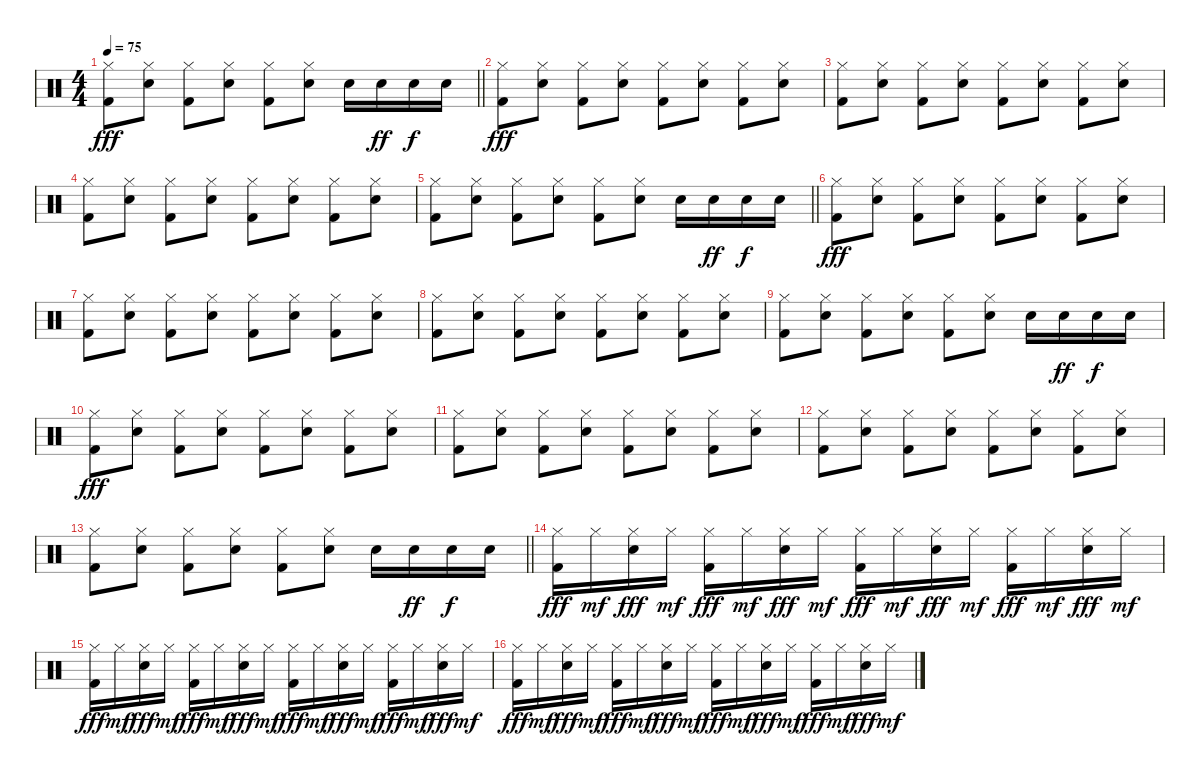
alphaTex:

\track "" {instrument percussion}
\staff {score}
\articulation defaults
\ts (4 4)
\tempo 75
\clef neutral
\barLineRight lightlight
\ks c
("Hi-Hat (closed)" "Kick (hit) 2").8{dy fff} ("Hi-Hat (closed)" "Snare (hit) 2").8 ("Hi-Hat (closed)" "Kick (hit) 2").8 ("Hi-Hat (closed)" "Snare (hit) 2").8 ("Hi-Hat (closed)" "Kick (hit) 2").8 ("Hi-Hat (closed)" "Snare (hit) 2").8 "Snare (hit) 2".16 "Snare (hit) 2".16{dy ff} "Snare (hit) 2".16{dy f} "Snare (hit) 2".16 |
("Hi-Hat (closed)" "Kick (hit) 2").8{dy fff} ("Hi-Hat (closed)" "Snare (hit) 2").8 ("Hi-Hat (closed)" "Kick (hit) 2").8 ("Hi-Hat (closed)" "Snare (hit) 2").8 ("Hi-Hat (closed)" "Kick (hit) 2").8 ("Hi-Hat (closed)" "Snare (hit) 2").8 ("Hi-Hat (closed)" "Kick (hit) 2").8 ("Hi-Hat (closed)" "Snare (hit) 2").8 |
("Hi-Hat (closed)" "Kick (hit) 2").8 ("Hi-Hat (closed)" "Snare (hit) 2").8 ("Hi-Hat (closed)" "Kick (hit) 2").8 ("Hi-Hat (closed)" "Snare (hit) 2").8 ("Hi-Hat (closed)" "Kick (hit) 2").8 ("Hi-Hat (closed)" "Snare (hit) 2").8 ("Hi-Hat (closed)" "Kick (hit) 2").8 ("Hi-Hat (closed)" "Snare (hit) 2").8 |
("Hi-Hat (closed)" "Kick (hit) 2").8 ("Hi-Hat (closed)" "Snare (hit) 2").8 ("Hi-Hat (closed)" "Kick (hit) 2").8 ("Hi-Hat (closed)" "Snare (hit) 2").8 ("Hi-Hat (closed)" "Kick (hit) 2").8 ("Hi-Hat (closed)" "Snare (hit) 2").8 ("Hi-Hat (closed)" "Kick (hit) 2").8 ("Hi-Hat (closed)" "Snare (hit) 2").8 |
\barLineRight lightlight
("Hi-Hat (closed)" "Kick (hit) 2").8 ("Hi-Hat (closed)" "Snare (hit) 2").8 ("Hi-Hat (closed)" "Kick (hit) 2").8 ("Hi-Hat (closed)" "Snare (hit) 2").8 ("Hi-Hat (closed)" "Kick (hit) 2").8 ("Hi-Hat (closed)" "Snare (hit) 2").8 "Snare (hit) 2".16 "Snare (hit) 2".16{dy ff} "Snare (hit) 2".16{dy f} "Snare (hit) 2".16 |
("Hi-Hat (closed)" "Kick (hit) 2").8{dy fff} ("Hi-Hat (closed)" "Snare (hit) 2").8 ("Hi-Hat (closed)" "Kick (hit) 2").8 ("Hi-Hat (closed)" "Snare (hit) 2").8 ("Hi-Hat (closed)" "Kick (hit) 2").8 ("Hi-Hat (closed)" "Snare (hit) 2").8 ("Hi-Hat (closed)" "Kick (hit) 2").8 ("Hi-Hat (closed)" "Snare (hit) 2").8 |
("Hi-Hat (closed)" "Kick (hit) 2").8 ("Hi-Hat (closed)" "Snare (hit) 2").8 ("Hi-Hat (closed)" "Kick (hit) 2").8 ("Hi-Hat (closed)" "Snare (hit) 2").8 ("Hi-Hat (closed)" "Kick (hit) 2").8 ("Hi-Hat (closed)" "Snare (hit) 2").8 ("Hi-Hat (closed)" "Kick (hit) 2").8 ("Hi-Hat (closed)" "Snare (hit) 2").8 |
("Hi-Hat (closed)" "Kick (hit) 2").8 ("Hi-Hat (closed)" "Snare (hit) 2").8 ("Hi-Hat (closed)" "Kick (hit) 2").8 ("Hi-Hat (closed)" "Snare (hit) 2").8 ("Hi-Hat (closed)" "Kick (hit) 2").8 ("Hi-Hat (closed)" "Snare (hit) 2").8 ("Hi-Hat (closed)" "Kick (hit) 2").8 ("Hi-Hat (closed)" "Snare (hit) 2").8 |
("Hi-Hat (closed)" "Kick (hit) 2").8 ("Hi-Hat (closed)" "Snare (hit) 2").8 ("Hi-Hat (closed)" "Kick (hit) 2").8 ("Hi-Hat (closed)" "Snare (hit) 2").8 ("Hi-Hat (closed)" "Kick (hit) 2").8 ("Hi-Hat (closed)" "Snare (hit) 2").8 "Snare (hit) 2".16 "Snare (hit) 2".16{dy ff} "Snare (hit) 2".16{dy f} "Snare (hit) 2".16 |
("Hi-Hat (closed)" "Kick (hit) 2").8{dy fff} ("Hi-Hat (closed)" "Snare (hit) 2").8 ("Hi-Hat (closed)" "Kick (hit) 2").8 ("Hi-Hat (closed)" "Snare (hit) 2").8 ("Hi-Hat (closed)" "Kick (hit) 2").8 ("Hi-Hat (closed)" "Snare (hit) 2").8 ("Hi-Hat (closed)" "Kick (hit) 2").8 ("Hi-Hat (closed)" "Snare (hit) 2").8 |
("Hi-Hat (closed)" "Kick (hit) 2").8 ("Hi-Hat (closed)" "Snare (hit) 2").8 ("Hi-Hat (closed)" "Kick (hit) 2").8 ("Hi-Hat (closed)" "Snare (hit) 2").8 ("Hi-Hat (closed)" "Kick (hit) 2").8 ("Hi-Hat (closed)" "Snare (hit) 2").8 ("Hi-Hat (closed)" "Kick (hit) 2").8 ("Hi-Hat (closed)" "Snare (hit) 2").8 |
("Hi-Hat (closed)" "Kick (hit) 2").8 ("Hi-Hat (closed)" "Snare (hit) 2").8 ("Hi-Hat (closed)" "Kick (hit) 2").8 ("Hi-Hat (closed)" "Snare (hit) 2").8 ("Hi-Hat (closed)" "Kick (hit) 2").8 ("Hi-Hat (closed)" "Snare (hit) 2").8 ("Hi-Hat (closed)" "Kick (hit) 2").8 ("Hi-Hat (closed)" "Snare (hit) 2").8 |
\barLineRight lightlight
("Hi-Hat (closed)" "Kick (hit) 2").8 ("Hi-Hat (closed)" "Snare (hit) 2").8 ("Hi-Hat (closed)" "Kick (hit) 2").8 ("Hi-Hat (closed)" "Snare (hit) 2").8 ("Hi-Hat (closed)" "Kick (hit) 2").8 ("Hi-Hat (closed)" "Snare (hit) 2").8 "Snare (hit) 2".16 "Snare (hit) 2".16{dy ff} "Snare (hit) 2".16{dy f} "Snare (hit) 2".16 |
\section ("" "")
("Hi-Hat (closed)" "Kick (hit) 2").16{dy fff} "Hi-Hat (closed)".16{dy mf} ("Hi-Hat (closed)" "Snare (hit) 2").16{dy fff} "Hi-Hat (closed)".16{dy mf} ("Hi-Hat (closed)" "Kick (hit) 2").16{dy fff} "Hi-Hat (closed)".16{dy mf} ("Hi-Hat (closed)" "Snare (hit) 2").16{dy fff} "Hi-Hat (closed)".16{dy mf} ("Hi-Hat (closed)" "Kick (hit) 2").16{dy fff} "Hi-Hat (closed)".16{dy mf} ("Hi-Hat (closed)" "Snare (hit) 2").16{dy fff} "Hi-Hat (closed)".16{dy mf} ("Hi-Hat (closed)" "Kick (hit) 2").16{dy fff} "Hi-Hat (closed)".16{dy mf} ("Hi-Hat (closed)" "Snare (hit) 2").16{dy fff} "Hi-Hat (closed)".16{dy mf} |
("Hi-Hat (closed)" "Kick (hit) 2").16{dy fff} "Hi-Hat (closed)".16{dy mf} ("Hi-Hat (closed)" "Snare (hit) 2").16{dy fff} "Hi-Hat (closed)".16{dy mf} ("Hi-Hat (closed)" "Kick (hit) 2").16{dy fff} "Hi-Hat (closed)".16{dy mf} ("Hi-Hat (closed)" "Snare (hit) 2").16{dy fff} "Hi-Hat (closed)".16{dy mf} ("Hi-Hat (closed)" "Kick (hit) 2").16{dy fff} "Hi-Hat (closed)".16{dy mf} ("Hi-Hat (closed)" "Snare (hit) 2").16{dy fff} "Hi-Hat (closed)".16{dy mf} ("Hi-Hat (closed)" "Kick (hit) 2").16{dy fff} "Hi-Hat (closed)".16{dy mf} ("Hi-Hat (closed)" "Snare (hit) 2").16{dy fff} "Hi-Hat (closed)".16{dy mf} |
("Hi-Hat (closed)" "Kick (hit) 2").16{dy fff} "Hi-Hat (closed)".16{dy mf} ("Hi-Hat (closed)" "Snare (hit) 2").16{dy fff} "Hi-Hat (closed)".16{dy mf} ("Hi-Hat (closed)" "Kick (hit) 2").16{dy fff} "Hi-Hat (closed)".16{dy mf} ("Hi-Hat (closed)" "Snare (hit) 2").16{dy fff} "Hi-Hat (closed)".16{dy mf} ("Hi-Hat (closed)" "Kick (hit) 2").16{dy fff} "Hi-Hat (closed)".16{dy mf} ("Hi-Hat (closed)" "Snare (hit) 2").16{dy fff} "Hi-Hat (closed)".16{dy mf} ("Hi-Hat (closed)" "Kick (hit) 2").16{dy fff} "Hi-Hat (closed)".16{dy mf} ("Hi-Hat (closed)" "Snare (hit) 2").16{dy fff} "Hi-Hat (closed)".16{dy mf}
